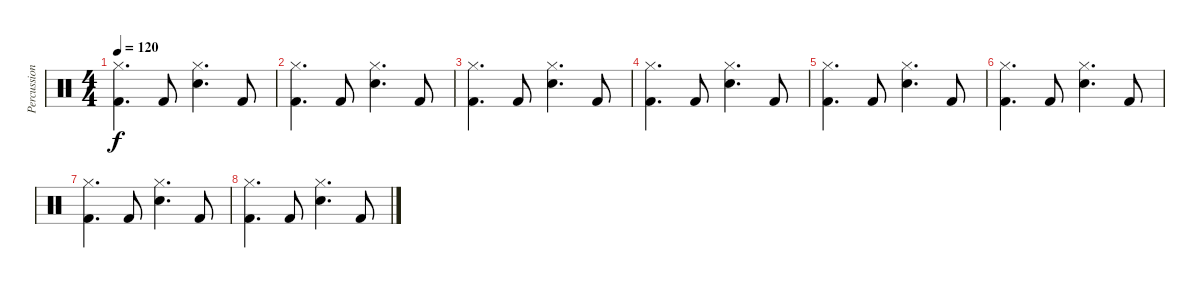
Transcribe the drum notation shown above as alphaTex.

\track ("Percussions" "Percussion") {instrument percussion}
\staff {score}
\articulation defaults
\ts (4 4)
\tempo 120
\clef neutral
\ks c
("Hi-Hat (closed)" "Kick (hit) 2").4{d dy f} "Kick (hit) 2".8 ("Hi-Hat (closed)" "Snare (hit) 2").4{d} "Kick (hit) 2".8 |
("Hi-Hat (closed)" "Kick (hit) 2").4{d} "Kick (hit) 2".8 ("Hi-Hat (closed)" "Snare (hit) 2").4{d} "Kick (hit) 2".8 |
("Hi-Hat (closed)" "Kick (hit) 2").4{d} "Kick (hit) 2".8 ("Hi-Hat (closed)" "Snare (hit) 2").4{d} "Kick (hit) 2".8 |
("Hi-Hat (closed)" "Kick (hit) 2").4{d} "Kick (hit) 2".8 ("Hi-Hat (closed)" "Snare (hit) 2").4{d} "Kick (hit) 2".8 |
("Hi-Hat (closed)" "Kick (hit) 2").4{d} "Kick (hit) 2".8 ("Hi-Hat (closed)" "Snare (hit) 2").4{d} "Kick (hit) 2".8 |
("Hi-Hat (closed)" "Kick (hit) 2").4{d} "Kick (hit) 2".8 ("Hi-Hat (closed)" "Snare (hit) 2").4{d} "Kick (hit) 2".8 |
("Hi-Hat (closed)" "Kick (hit) 2").4{d} "Kick (hit) 2".8 ("Hi-Hat (closed)" "Snare (hit) 2").4{d} "Kick (hit) 2".8 |
("Hi-Hat (closed)" "Kick (hit) 2").4{d} "Kick (hit) 2".8 ("Hi-Hat (closed)" "Snare (hit) 2").4{d} "Kick (hit) 2".8
